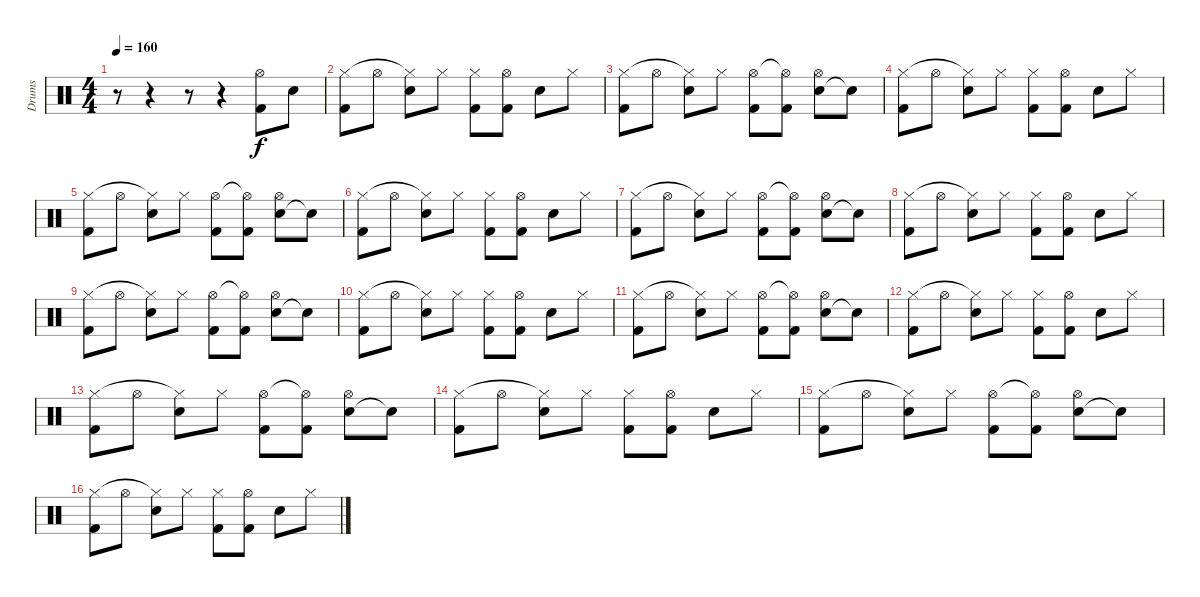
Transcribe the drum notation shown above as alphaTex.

\track ("Drums" "Drums") {instrument percussion}
\staff {score}
\articulation defaults
\ts (4 4)
\tempo 160
\clef neutral
\ks c
r.8{dy f} r.4 r.8 r.4 ("Kick (hit) 2" "Hi-Hat (open)").8 "Snare (hit) 2".8 |
("Kick (hit) 2" "Hi-Hat (closed)").8 "Hi-Hat (open)".8 ("Snare (hit) 2" "Hi-Hat (closed)"{t}).8 "Hi-Hat (closed)".8 ("Kick (hit) 2" "Hi-Hat (closed)").8 ("Kick (hit) 2" "Hi-Hat (open)").8 "Snare (hit) 2".8 "Hi-Hat (closed)".8 |
("Kick (hit) 2" "Hi-Hat (closed)").8 "Hi-Hat (open)".8 ("Snare (hit) 2" "Hi-Hat (closed)"{t}).8 "Hi-Hat (closed)".8 ("Kick (hit) 2" "Hi-Hat (open)").8 ("Kick (hit) 2" "Hi-Hat (open)"{t}).8 ("Snare (hit) 2" "Hi-Hat (open)").8 "Snare (hit)"{t}.8 |
("Kick (hit) 2" "Hi-Hat (closed)").8 "Hi-Hat (open)".8 ("Snare (hit) 2" "Hi-Hat (closed)"{t}).8 "Hi-Hat (closed)".8 ("Kick (hit) 2" "Hi-Hat (closed)").8 ("Kick (hit) 2" "Hi-Hat (open)").8 "Snare (hit) 2".8 "Hi-Hat (closed)".8 |
("Kick (hit) 2" "Hi-Hat (closed)").8 "Hi-Hat (open)".8 ("Snare (hit) 2" "Hi-Hat (closed)"{t}).8 "Hi-Hat (closed)".8 ("Kick (hit) 2" "Hi-Hat (open)").8 ("Kick (hit) 2" "Hi-Hat (open)"{t}).8 ("Snare (hit) 2" "Hi-Hat (open)").8 "Snare (hit)"{t}.8 |
("Kick (hit) 2" "Hi-Hat (closed)").8 "Hi-Hat (open)".8 ("Snare (hit) 2" "Hi-Hat (closed)"{t}).8 "Hi-Hat (closed)".8 ("Kick (hit) 2" "Hi-Hat (closed)").8 ("Kick (hit) 2" "Hi-Hat (open)").8 "Snare (hit) 2".8 "Hi-Hat (closed)".8 |
("Kick (hit) 2" "Hi-Hat (closed)").8 "Hi-Hat (open)".8 ("Snare (hit) 2" "Hi-Hat (closed)"{t}).8 "Hi-Hat (closed)".8 ("Kick (hit) 2" "Hi-Hat (open)").8 ("Kick (hit) 2" "Hi-Hat (open)"{t}).8 ("Snare (hit) 2" "Hi-Hat (open)").8 "Snare (hit)"{t}.8 |
("Kick (hit) 2" "Hi-Hat (closed)").8 "Hi-Hat (open)".8 ("Snare (hit) 2" "Hi-Hat (closed)"{t}).8 "Hi-Hat (closed)".8 ("Kick (hit) 2" "Hi-Hat (closed)").8 ("Kick (hit) 2" "Hi-Hat (open)").8 "Snare (hit) 2".8 "Hi-Hat (closed)".8 |
("Kick (hit) 2" "Hi-Hat (closed)").8 "Hi-Hat (open)".8 ("Snare (hit) 2" "Hi-Hat (closed)"{t}).8 "Hi-Hat (closed)".8 ("Kick (hit) 2" "Hi-Hat (open)").8 ("Kick (hit) 2" "Hi-Hat (open)"{t}).8 ("Snare (hit) 2" "Hi-Hat (open)").8 "Snare (hit)"{t}.8 |
("Kick (hit) 2" "Hi-Hat (closed)").8 "Hi-Hat (open)".8 ("Snare (hit) 2" "Hi-Hat (closed)"{t}).8 "Hi-Hat (closed)".8 ("Kick (hit) 2" "Hi-Hat (closed)").8 ("Kick (hit) 2" "Hi-Hat (open)").8 "Snare (hit) 2".8 "Hi-Hat (closed)".8 |
("Kick (hit) 2" "Hi-Hat (closed)").8 "Hi-Hat (open)".8 ("Snare (hit) 2" "Hi-Hat (closed)"{t}).8 "Hi-Hat (closed)".8 ("Kick (hit) 2" "Hi-Hat (open)").8 ("Kick (hit) 2" "Hi-Hat (open)"{t}).8 ("Snare (hit) 2" "Hi-Hat (open)").8 "Snare (hit)"{t}.8 |
("Kick (hit) 2" "Hi-Hat (closed)").8 "Hi-Hat (open)".8 ("Snare (hit) 2" "Hi-Hat (closed)"{t}).8 "Hi-Hat (closed)".8 ("Kick (hit) 2" "Hi-Hat (closed)").8 ("Kick (hit) 2" "Hi-Hat (open)").8 "Snare (hit) 2".8 "Hi-Hat (closed)".8 |
("Kick (hit) 2" "Hi-Hat (closed)").8 "Hi-Hat (open)".8 ("Snare (hit) 2" "Hi-Hat (closed)"{t}).8 "Hi-Hat (closed)".8 ("Kick (hit) 2" "Hi-Hat (open)").8 ("Kick (hit) 2" "Hi-Hat (open)"{t}).8 ("Snare (hit) 2" "Hi-Hat (open)").8 "Snare (hit)"{t}.8 |
("Kick (hit) 2" "Hi-Hat (closed)").8 "Hi-Hat (open)".8 ("Snare (hit) 2" "Hi-Hat (closed)"{t}).8 "Hi-Hat (closed)".8 ("Kick (hit) 2" "Hi-Hat (closed)").8 ("Kick (hit) 2" "Hi-Hat (open)").8 "Snare (hit) 2".8 "Hi-Hat (closed)".8 |
("Kick (hit) 2" "Hi-Hat (closed)").8 "Hi-Hat (open)".8 ("Snare (hit) 2" "Hi-Hat (closed)"{t}).8 "Hi-Hat (closed)".8 ("Kick (hit) 2" "Hi-Hat (open)").8 ("Kick (hit) 2" "Hi-Hat (open)"{t}).8 ("Snare (hit) 2" "Hi-Hat (open)").8 "Snare (hit)"{t}.8 |
("Kick (hit) 2" "Hi-Hat (closed)").8 "Hi-Hat (open)".8 ("Snare (hit) 2" "Hi-Hat (closed)"{t}).8 "Hi-Hat (closed)".8 ("Kick (hit) 2" "Hi-Hat (closed)").8 ("Kick (hit) 2" "Hi-Hat (open)").8 "Snare (hit) 2".8 "Hi-Hat (closed)".8
